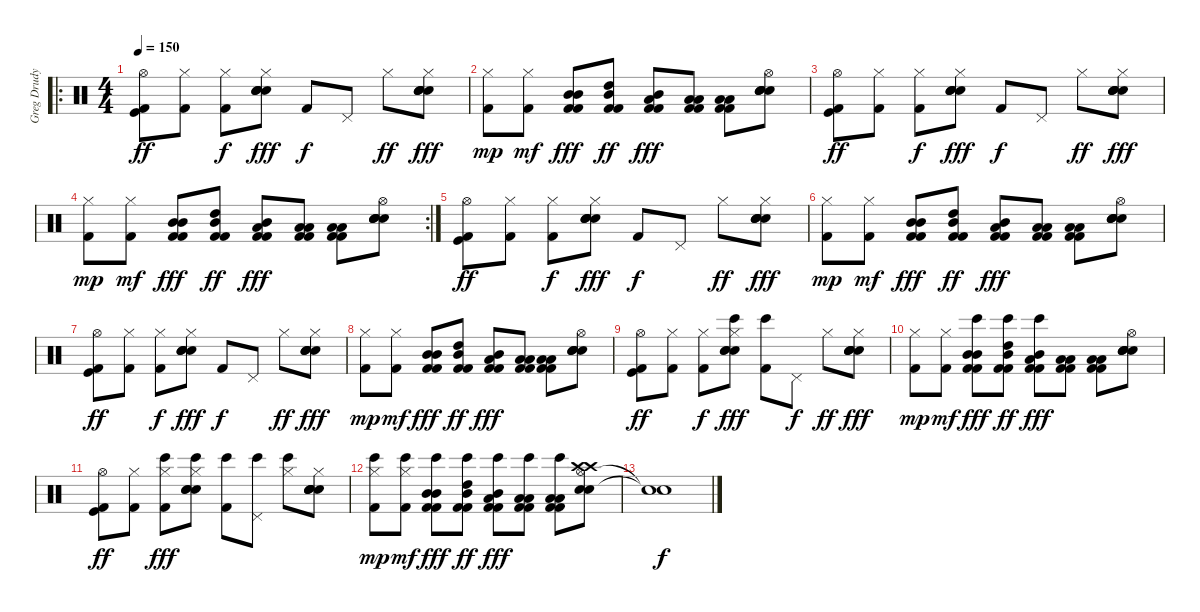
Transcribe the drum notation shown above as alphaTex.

\track ("Greg Drudy" "Greg Drudy") {instrument percussion}
\staff {score}
\articulation defaults
\ro
\ts (4 4)
\tempo 150
\clef neutral
\ks c
("Hi-Hat (open)" "Kick (hit)" "Kick (hit) 2").8{dy ff} ("Hi-Hat (closed)" "Kick (hit) 2").8 ("Hi-Hat (closed)" "Kick (hit) 2").8{dy f} ("Hi-Hat (closed)" "Snare (hit) 2" "Snare (hit) 2" "Electric Snare (hit)" "Electric Snare (hit)").8{dy fff} "Kick (hit) 2".8{dy f} "Pedal Hi-Hat (hit)".8 "Hi-Hat (closed)".8{dy ff} ("Hi-Hat (closed)" "Snare (hit) 2" "Snare (hit) 2" "Electric Snare (hit)" "Electric Snare (hit)").8{dy fff} |
("Hi-Hat (closed)" "Kick (hit) 2").8{dy mp} ("Hi-Hat (closed)" "Kick (hit) 2").8{dy mf} ("Mid Tom (hit)" "Mid Tom (hit)" "Kick (hit) 2" "Kick (hit) 2").8{dy fff} ("High Tom (hit)" "Mid Tom (hit)" "Kick (hit) 2" "Kick (hit) 2").8{dy ff} ("Mid Tom (hit)" "Low Tom (hit)" "Kick (hit) 2" "Kick (hit) 2").8{dy fff} ("Low Tom (hit)" "Low Tom (hit)" "Kick (hit) 2" "Kick (hit) 2").8 ("Low Tom (hit)" "Low Tom (hit)" "Kick (hit) 2" "Kick (hit) 2").8 ("Hi-Hat (open)" "Snare (hit) 2" "Snare (hit) 2" "Electric Snare (hit)" "Electric Snare (hit)").8 |
("Hi-Hat (open)" "Kick (hit)" "Kick (hit) 2").8{dy ff} ("Hi-Hat (closed)" "Kick (hit) 2").8 ("Hi-Hat (closed)" "Kick (hit) 2").8{dy f} ("Hi-Hat (closed)" "Snare (hit) 2" "Snare (hit) 2" "Electric Snare (hit)" "Electric Snare (hit)").8{dy fff} "Kick (hit) 2".8{dy f} "Pedal Hi-Hat (hit)".8 "Hi-Hat (closed)".8{dy ff} ("Hi-Hat (closed)" "Snare (hit) 2" "Snare (hit) 2" "Electric Snare (hit)" "Electric Snare (hit)").8{dy fff} |
\rc 2
("Hi-Hat (closed)" "Kick (hit) 2").8{dy mp} ("Hi-Hat (closed)" "Kick (hit) 2").8{dy mf} ("Mid Tom (hit)" "Mid Tom (hit)" "Kick (hit) 2" "Kick (hit) 2").8{dy fff} ("High Tom (hit)" "Mid Tom (hit)" "Kick (hit) 2" "Kick (hit) 2").8{dy ff} ("Mid Tom (hit)" "Low Tom (hit)" "Kick (hit) 2" "Kick (hit) 2").8{dy fff} ("Low Tom (hit)" "Low Tom (hit)" "Kick (hit) 2" "Kick (hit) 2").8 ("Low Tom (hit)" "Low Tom (hit)" "Kick (hit) 2" "Kick (hit) 2").8 ("Hi-Hat (open)" "Snare (hit) 2" "Snare (hit) 2" "Electric Snare (hit)" "Electric Snare (hit)").8 |
("Hi-Hat (open)" "Kick (hit)" "Kick (hit) 2").8{dy ff} ("Hi-Hat (closed)" "Kick (hit) 2").8 ("Hi-Hat (closed)" "Kick (hit) 2").8{dy f} ("Hi-Hat (closed)" "Snare (hit) 2" "Snare (hit) 2" "Electric Snare (hit)" "Electric Snare (hit)").8{dy fff} "Kick (hit) 2".8{dy f} "Pedal Hi-Hat (hit)".8 "Hi-Hat (closed)".8{dy ff} ("Hi-Hat (closed)" "Snare (hit) 2" "Snare (hit) 2" "Electric Snare (hit)" "Electric Snare (hit)").8{dy fff} |
("Hi-Hat (closed)" "Kick (hit) 2").8{dy mp} ("Hi-Hat (closed)" "Kick (hit) 2").8{dy mf} ("Mid Tom (hit)" "Mid Tom (hit)" "Kick (hit) 2" "Kick (hit) 2").8{dy fff} ("High Tom (hit)" "Mid Tom (hit)" "Kick (hit) 2" "Kick (hit) 2").8{dy ff} ("Mid Tom (hit)" "Low Tom (hit)" "Kick (hit) 2" "Kick (hit) 2").8{dy fff} ("Low Tom (hit)" "Low Tom (hit)" "Kick (hit) 2" "Kick (hit) 2").8 ("Low Tom (hit)" "Low Tom (hit)" "Kick (hit) 2" "Kick (hit) 2").8 ("Hi-Hat (open)" "Snare (hit) 2" "Snare (hit) 2" "Electric Snare (hit)" "Electric Snare (hit)").8 |
("Hi-Hat (open)" "Kick (hit)" "Kick (hit) 2").8{dy ff} ("Hi-Hat (closed)" "Kick (hit) 2").8 ("Hi-Hat (closed)" "Kick (hit) 2").8{dy f} ("Hi-Hat (closed)" "Snare (hit) 2" "Snare (hit) 2" "Electric Snare (hit)" "Electric Snare (hit)").8{dy fff} "Kick (hit) 2".8{dy f} "Pedal Hi-Hat (hit)".8 "Hi-Hat (closed)".8{dy ff} ("Hi-Hat (closed)" "Snare (hit) 2" "Snare (hit) 2" "Electric Snare (hit)" "Electric Snare (hit)").8{dy fff} |
("Hi-Hat (closed)" "Kick (hit) 2").8{dy mp} ("Hi-Hat (closed)" "Kick (hit) 2").8{dy mf} ("Mid Tom (hit)" "Mid Tom (hit)" "Kick (hit) 2" "Kick (hit) 2").8{dy fff} ("High Tom (hit)" "Mid Tom (hit)" "Kick (hit) 2" "Kick (hit) 2").8{dy ff} ("Mid Tom (hit)" "Low Tom (hit)" "Kick (hit) 2" "Kick (hit) 2").8{dy fff} ("Low Tom (hit)" "Low Tom (hit)" "Kick (hit) 2" "Kick (hit) 2").8 ("Low Tom (hit)" "Low Tom (hit)" "Kick (hit) 2" "Kick (hit) 2").8 ("Hi-Hat (open)" "Snare (hit) 2" "Snare (hit) 2" "Electric Snare (hit)" "Electric Snare (hit)").8 |
("Hi-Hat (open)" "Kick (hit)" "Kick (hit) 2").8{dy ff} ("Hi-Hat (closed)" "Kick (hit) 2").8 ("Hi-Hat (closed)" "Kick (hit) 2").8{dy f} ("Hi-Hat (closed)" "Snare (hit) 2" "Snare (hit) 2" "Bongo High (hit)" "Electric Snare (hit)").8{dy fff} ("Bongo High (hit)" "Kick (hit) 2").8 "Pedal Hi-Hat (hit)".8{dy f} "Hi-Hat (closed)".8{dy ff} ("Hi-Hat (closed)" "Snare (hit) 2" "Snare (hit) 2" "Electric Snare (hit)" "Electric Snare (hit)").8{dy fff} |
("Hi-Hat (closed)" "Kick (hit) 2").8{dy mp} ("Hi-Hat (closed)" "Kick (hit) 2").8{dy mf} ("Bongo High (hit)" "Mid Tom (hit)" "Mid Tom (hit)" "Kick (hit) 2" "Kick (hit) 2").8{dy fff} ("Bongo High (hit)" "High Tom (hit)" "Mid Tom (hit)" "Kick (hit) 2" "Kick (hit) 2").8{dy ff} ("Bongo High (hit)" "Mid Tom (hit)" "Low Tom (hit)" "Kick (hit) 2" "Kick (hit) 2").8{dy fff} ("Low Tom (hit)" "Low Tom (hit)" "Kick (hit) 2" "Kick (hit) 2").8 ("Low Tom (hit)" "Low Tom (hit)" "Kick (hit) 2" "Kick (hit) 2").8 ("Hi-Hat (open)" "Snare (hit) 2" "Snare (hit) 2" "Electric Snare (hit)" "Electric Snare (hit)").8 |
("Hi-Hat (open)" "Kick (hit)" "Kick (hit) 2").8{dy ff} ("Hi-Hat (closed)" "Kick (hit) 2").8 ("Hi-Hat (closed)" "Bongo High (hit)" "Kick (hit) 2").8{dy fff} ("Hi-Hat (closed)" "Snare (hit) 2" "Bongo High (hit)" "Electric Snare (hit)" "Electric Snare (hit)").8 ("Bongo High (hit)" "Kick (hit) 2").8 ("Pedal Hi-Hat (hit)" "Bongo High (hit)").8 ("Hi-Hat (closed)" "Bongo High (hit)").8 ("Hi-Hat (closed)" "Snare (hit) 2" "Snare (hit) 2" "Electric Snare (hit)" "Electric Snare (hit)").8 |
("Hi-Hat (closed)" "Bongo High (hit)" "Kick (hit) 2").8{dy mp} ("Hi-Hat (closed)" "Bongo High (hit)" "Kick (hit) 2").8{dy mf} ("Bongo High (hit)" "Mid Tom (hit)" "Mid Tom (hit)" "Kick (hit) 2" "Kick (hit) 2").8{dy fff} ("Bongo High (hit)" "High Tom (hit)" "Mid Tom (hit)" "Kick (hit) 2" "Kick (hit) 2").8{dy ff} ("Bongo High (hit)" "Mid Tom (hit)" "Low Tom (hit)" "Kick (hit) 2" "Kick (hit) 2").8{dy fff} ("Bongo High (hit)" "Low Tom (hit)" "Low Tom (hit)" "Kick (hit) 2" "Kick (hit) 2").8 ("Bongo High (hit)" "Low Tom (hit)" "Low Tom (hit)" "Kick (hit) 2" "Kick (hit) 2").8 ("Hi-Hat (open)" "Snare (hit) 2" "Crash high (hit)" "Electric Snare (hit)" "Crash high (hit)").8 |
("Snare (hit)"{t} "Snare (hit)"{t}).1{dy f}
